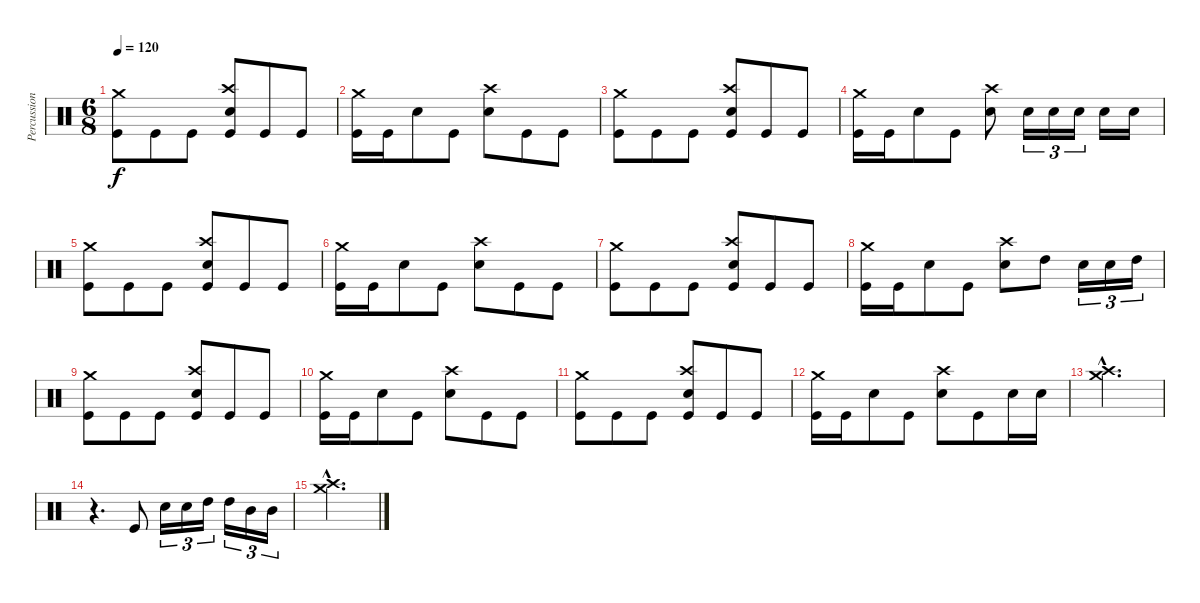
\track ("Percussion" "Percussion") {instrument percussion}
\staff {score}
\articulation defaults
\ts (6 8)
\tempo 120
\clef neutral
\ks c
("Crash medium (hit)" "Kick (hit)").8{dy f} "Kick (hit)".8 "Kick (hit)".8 ("Crash high (hit)" "Snare (hit) 2" "Kick (hit)").8 "Kick (hit)".8 "Kick (hit)".8 |
("Crash medium (hit)" "Kick (hit)").16 "Kick (hit)".16 "Snare (hit) 2".8 "Kick (hit)".8 ("Crash high (hit)" "Snare (hit) 2").8 "Kick (hit)".8 "Kick (hit)".8 |
("Crash medium (hit)" "Kick (hit)").8 "Kick (hit)".8 "Kick (hit)".8 ("Crash high (hit)" "Snare (hit) 2" "Kick (hit)").8 "Kick (hit)".8 "Kick (hit)".8 |
("Crash medium (hit)" "Kick (hit)").16 "Kick (hit)".16 "Snare (hit) 2".8 "Kick (hit)".8 ("Crash high (hit)" "Snare (hit) 2").8 "Snare (hit) 2".16{tu (3 2)} "Snare (hit) 2".16{tu (3 2)} "Snare (hit) 2".16{tu (3 2)} "Snare (hit) 2".16 "Snare (hit) 2".16 |
("Crash medium (hit)" "Kick (hit)").8 "Kick (hit)".8 "Kick (hit)".8 ("Crash high (hit)" "Snare (hit) 2" "Kick (hit)").8 "Kick (hit)".8 "Kick (hit)".8 |
("Crash medium (hit)" "Kick (hit)").16 "Kick (hit)".16 "Snare (hit) 2".8 "Kick (hit)".8 ("Crash high (hit)" "Snare (hit) 2").8 "Kick (hit)".8 "Kick (hit)".8 |
("Crash medium (hit)" "Kick (hit)").8 "Kick (hit)".8 "Kick (hit)".8 ("Crash high (hit)" "Snare (hit) 2" "Kick (hit)").8 "Kick (hit)".8 "Kick (hit)".8 |
("Crash medium (hit)" "Kick (hit)").16 "Kick (hit)".16 "Snare (hit) 2".8 "Kick (hit)".8 ("Crash high (hit)" "Snare (hit) 2").8 "High Tom (hit)".8 "Snare (hit) 2".16{tu (3 2)} "Snare (hit) 2".16{tu (3 2)} "High Tom (hit)".16{tu (3 2)} |
("Crash medium (hit)" "Kick (hit)").8 "Kick (hit)".8 "Kick (hit)".8 ("Crash high (hit)" "Snare (hit) 2" "Kick (hit)").8 "Kick (hit)".8 "Kick (hit)".8 |
("Crash medium (hit)" "Kick (hit)").16 "Kick (hit)".16 "Snare (hit) 2".8 "Kick (hit)".8 ("Crash high (hit)" "Snare (hit) 2").8 "Kick (hit)".8 "Kick (hit)".8 |
("Crash medium (hit)" "Kick (hit)").8 "Kick (hit)".8 "Kick (hit)".8 ("Crash high (hit)" "Snare (hit) 2" "Kick (hit)").8 "Kick (hit)".8 "Kick (hit)".8 |
("Crash medium (hit)" "Kick (hit)").16 "Kick (hit)".16 "Snare (hit) 2".8 "Kick (hit)".8 ("Crash high (hit)" "Snare (hit) 2").8 "Kick (hit)".8 "Snare (hit) 2".16 "Snare (hit) 2".16 |
("Crash high (hit)"{hac} "Crash medium (hit)"{hac}).2{d} |
r.4{d} "Kick (hit)".8 "Snare (hit) 2".16{tu (3 2)} "Snare (hit) 2".16{tu (3 2)} "High Tom (hit)".16{tu (3 2)} "High Tom (hit)".16{tu (3 2)} "Mid Tom (hit)".16{tu (3 2)} "Mid Tom (hit)".16{tu (3 2)} |
("Crash high (hit)"{hac} "Crash medium (hit)"{hac}).2{d}
